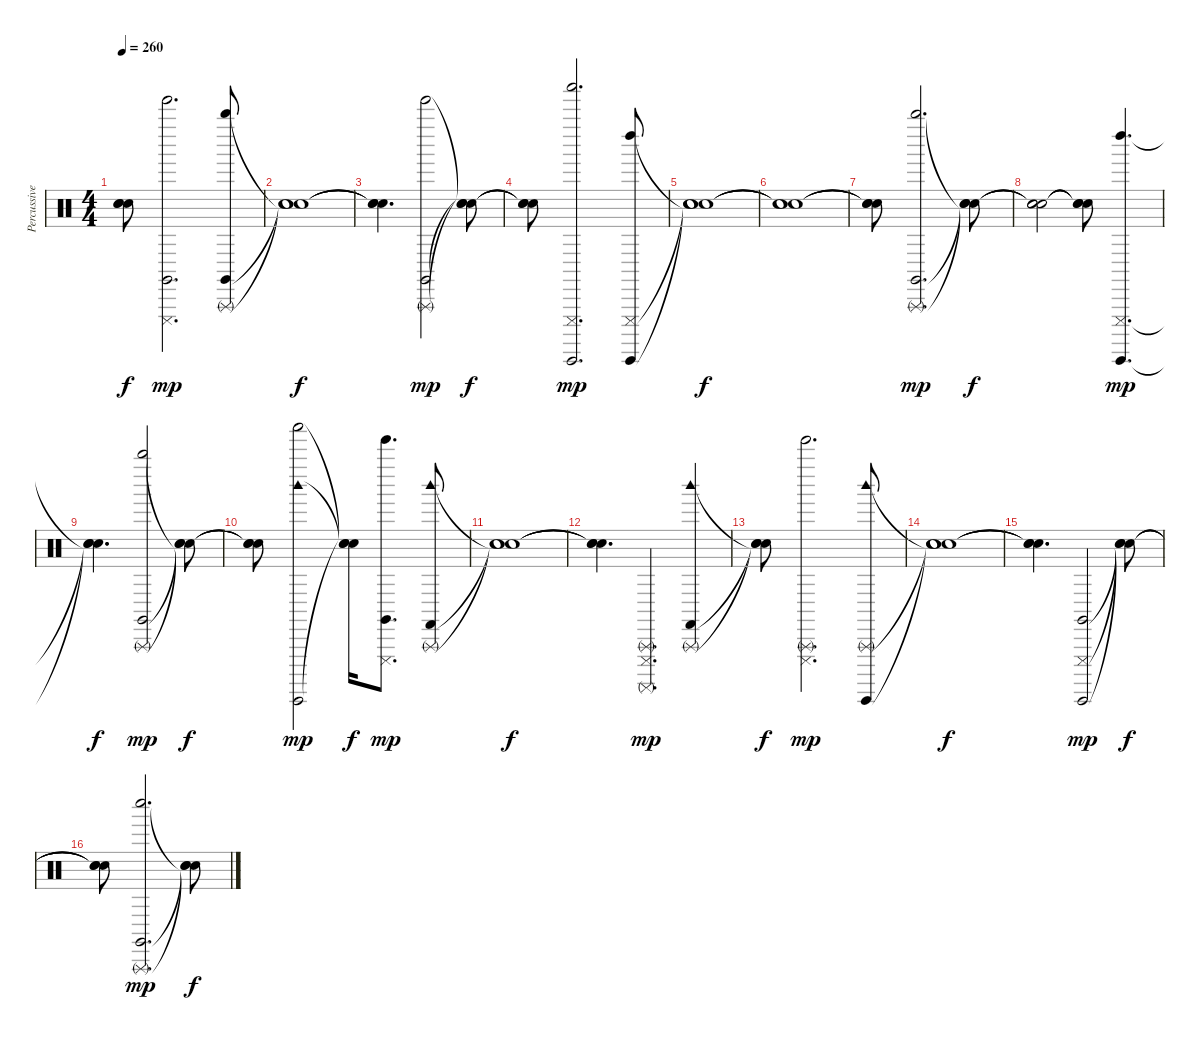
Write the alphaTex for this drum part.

\track ("Percussive Organ" "Percussive") {instrument percussion}
\staff {score}
\articulation defaults
\ts (4 4)
\tempo 260
\clef neutral
\ks c
("Snare (hit)"{t} "Snare (hit)"{t} "Snare (hit)"{t}).8{dy f} ("Tinkle Bell (hit)" "Cuica (mute)" "Claves (hit)").2{d dy mp} ("Whistle high (hit)" "Claves (hit)" "Triangle (rnute)").8 |
("Snare (hit)"{t} "Snare (hit)"{t} "Snare (hit)"{t}).1{dy f} |
("Snare (hit)"{t} "Snare (hit)"{t} "Snare (hit)"{t}).4{d} ("Tinkle Bell (hit)" "Claves (hit)" "Triangle (rnute)").2{dy mp} ("Snare (hit)"{t} "Snare (hit)"{t} "Snare (hit)"{t}).8{dy f} |
("Snare (hit)"{t} "Snare (hit)"{t} "Snare (hit)"{t}).8 ("Shaker (hit)" "Cuica (mute)" "Guiro (hit)").2{d dy mp} ("Left Maraca (hit)" "Cuica (mute)" "Guiro (hit)").8 |
("Snare (hit)"{t} "Snare (hit)"{t} "Snare (hit)"{t}).1{dy f} |
("Snare (hit)"{t} "Snare (hit)"{t} "Snare (hit)"{t}).1 |
("Snare (hit)"{t} "Snare (hit)"{t} "Snare (hit)"{t}).8 ("Claves (hit)" "Whistle high (hit)" "Triangle (rnute)").2{d dy mp} ("Snare (hit)"{t} "Snare (hit)"{t} "Snare (hit)"{t}).8{dy f} |
("Snare (hit)"{t} "Snare (hit)"{t} "Snare (hit)"{t}).2 ("Snare (hit)"{t} "Snare (hit)"{t} "Snare (hit)"{t}).8 ("Guiro (hit)" "Left Maraca (hit)" "Cuica (mute)").4{d dy mp} |
("Snare (hit)"{t} "Snare (hit)"{t} "Snare (hit)"{t}).4{d dy f} ("Claves (hit)" "Whistle high (hit)" "Triangle (rnute)").2{dy mp} ("Snare (hit)"{t} "Snare (hit)"{t} "Snare (hit)"{t}).8{dy f} |
("Snare (hit)"{t} "Snare (hit)"{t} "Snare (hit)"{t}).8 ("Woodblock high (hit)" "Guiro (hit)" "Shaker (hit)").2{dy mp} ("Snare (hit)"{t} "Snare (hit)"{t} "Snare (hit)"{t}).16{dy f} ("Claves (hit)" "Cuica (mute)" "Tinkle Bell (hit)").8{d dy mp} ("Woodblock high (hit)" "Castanets (hit)" "Triangle (rnute)").8 |
("Snare (hit)"{t} "Snare (hit)"{t} "Snare (hit)"{t}).1{dy f} |
("Snare (hit)"{t} "Snare (hit)"{t} "Snare (hit)"{t}).4{d} ("Cuica (mute)" "Surdo (mute)" "Triangle (rnute)").4{d dy mp} ("Woodblock high (hit)" "Castanets (hit)" "Triangle (rnute)").4 |
("Snare (hit)"{t} "Snare (hit)"{t} "Snare (hit)"{t}).8{dy f} ("Cuica (mute)" "Tinkle Bell (hit)" "Triangle (rnute)").2{d dy mp} ("Woodblock high (hit)" "Guiro (hit)" "Triangle (rnute)").8 |
("Snare (hit)"{t} "Snare (hit)"{t} "Snare (hit)"{t}).1{dy f} |
("Snare (hit)"{t} "Snare (hit)"{t} "Snare (hit)"{t}).4{d} ("Cuica (mute)" "Guiro (hit)" "Claves (hit)").2{dy mp} ("Snare (hit)"{t} "Snare (hit)"{t} "Snare (hit)"{t}).8{dy f} |
("Snare (hit)"{t} "Snare (hit)"{t} "Snare (hit)"{t}).8 ("Whistle low (hit)" "Triangle (rnute)" "Claves (hit)").2{d dy mp} ("Snare (hit)"{t} "Snare (hit)"{t} "Snare (hit)"{t}).8{dy f}
